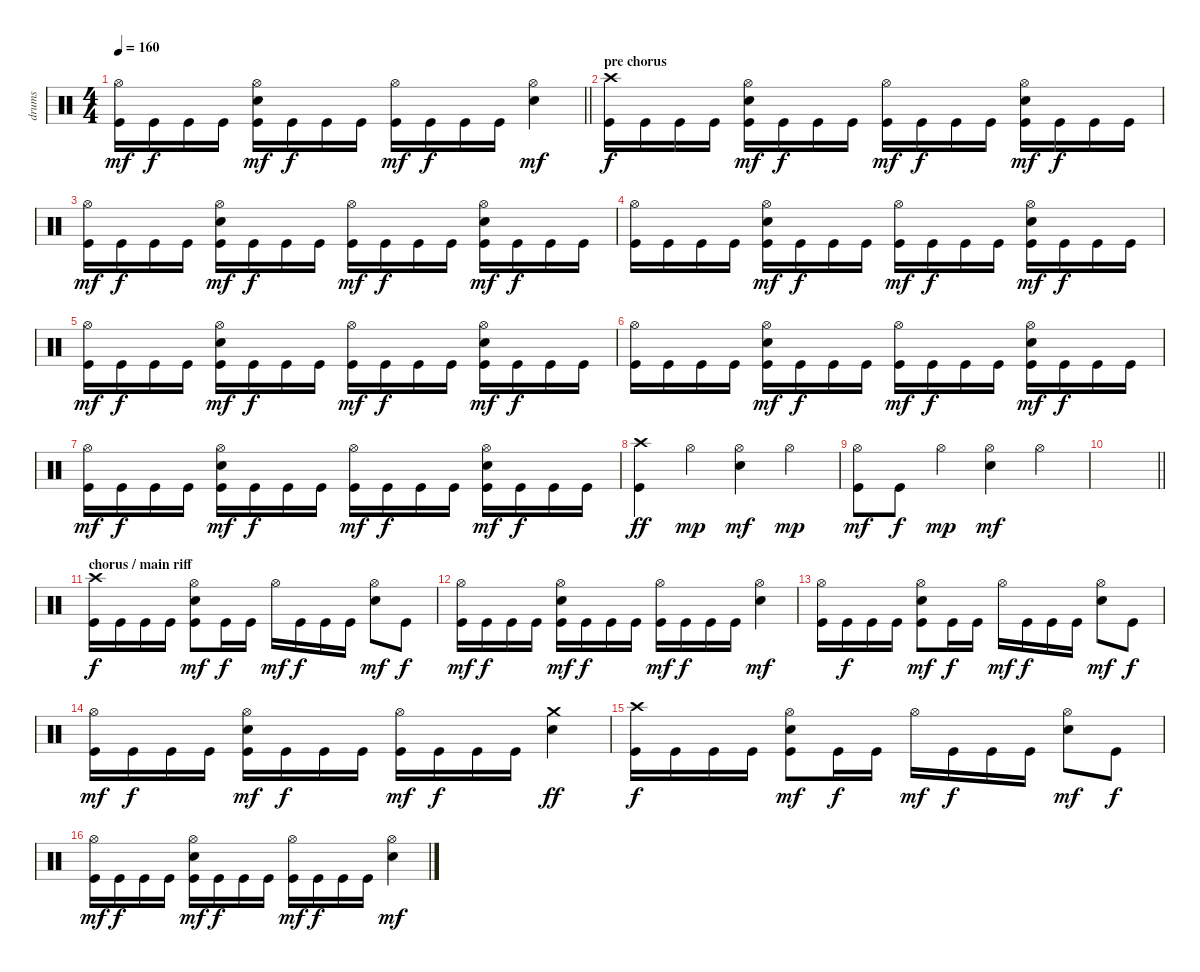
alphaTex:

\track ("drums" "drums") {instrument percussion}
\staff {score}
\articulation defaults
\ts (4 4)
\tempo 160
\clef neutral
\barLineRight lightlight
\ks c
("Hi-Hat (open)" "Kick (hit)").16{dy mf} "Kick (hit)".16{dy f} "Kick (hit)".16 "Kick (hit)".16 ("Hi-Hat (open)" "Electric Snare (hit)" "Kick (hit)").16{dy mf} "Kick (hit)".16{dy f} "Kick (hit)".16 "Kick (hit)".16 ("Hi-Hat (open)" "Kick (hit)").16{dy mf} "Kick (hit)".16{dy f} "Kick (hit)".16 "Kick (hit)".16 ("Hi-Hat (open)" "Electric Snare (hit)").4{dy mf} |
\section ("" "pre chorus")
("Crash high (hit)" "Kick (hit)").16{dy f} "Kick (hit)".16 "Kick (hit)".16 "Kick (hit)".16 ("Hi-Hat (open)" "Electric Snare (hit)" "Kick (hit)").16{dy mf} "Kick (hit)".16{dy f} "Kick (hit)".16 "Kick (hit)".16 ("Hi-Hat (open)" "Kick (hit)").16{dy mf} "Kick (hit)".16{dy f} "Kick (hit)".16 "Kick (hit)".16 ("Hi-Hat (open)" "Electric Snare (hit)" "Kick (hit)").16{dy mf} "Kick (hit)".16{dy f} "Kick (hit)".16 "Kick (hit)".16 |
("Hi-Hat (open)" "Kick (hit)").16{dy mf} "Kick (hit)".16{dy f} "Kick (hit)".16 "Kick (hit)".16 ("Hi-Hat (open)" "Electric Snare (hit)" "Kick (hit)").16{dy mf} "Kick (hit)".16{dy f} "Kick (hit)".16 "Kick (hit)".16 ("Hi-Hat (open)" "Kick (hit)").16{dy mf} "Kick (hit)".16{dy f} "Kick (hit)".16 "Kick (hit)".16 ("Hi-Hat (open)" "Electric Snare (hit)" "Kick (hit)").16{dy mf} "Kick (hit)".16{dy f} "Kick (hit)".16 "Kick (hit)".16 |
("Hi-Hat (open)" "Kick (hit)").16 "Kick (hit)".16 "Kick (hit)".16 "Kick (hit)".16 ("Hi-Hat (open)" "Electric Snare (hit)" "Kick (hit)").16{dy mf} "Kick (hit)".16{dy f} "Kick (hit)".16 "Kick (hit)".16 ("Hi-Hat (open)" "Kick (hit)").16{dy mf} "Kick (hit)".16{dy f} "Kick (hit)".16 "Kick (hit)".16 ("Hi-Hat (open)" "Electric Snare (hit)" "Kick (hit)").16{dy mf} "Kick (hit)".16{dy f} "Kick (hit)".16 "Kick (hit)".16 |
("Hi-Hat (open)" "Kick (hit)").16{dy mf} "Kick (hit)".16{dy f} "Kick (hit)".16 "Kick (hit)".16 ("Hi-Hat (open)" "Electric Snare (hit)" "Kick (hit)").16{dy mf} "Kick (hit)".16{dy f} "Kick (hit)".16 "Kick (hit)".16 ("Hi-Hat (open)" "Kick (hit)").16{dy mf} "Kick (hit)".16{dy f} "Kick (hit)".16 "Kick (hit)".16 ("Hi-Hat (open)" "Electric Snare (hit)" "Kick (hit)").16{dy mf} "Kick (hit)".16{dy f} "Kick (hit)".16 "Kick (hit)".16 |
("Hi-Hat (open)" "Kick (hit)").16 "Kick (hit)".16 "Kick (hit)".16 "Kick (hit)".16 ("Hi-Hat (open)" "Electric Snare (hit)" "Kick (hit)").16{dy mf} "Kick (hit)".16{dy f} "Kick (hit)".16 "Kick (hit)".16 ("Hi-Hat (open)" "Kick (hit)").16{dy mf} "Kick (hit)".16{dy f} "Kick (hit)".16 "Kick (hit)".16 ("Hi-Hat (open)" "Electric Snare (hit)" "Kick (hit)").16{dy mf} "Kick (hit)".16{dy f} "Kick (hit)".16 "Kick (hit)".16 |
("Hi-Hat (open)" "Kick (hit)").16{dy mf} "Kick (hit)".16{dy f} "Kick (hit)".16 "Kick (hit)".16 ("Hi-Hat (open)" "Electric Snare (hit)" "Kick (hit)").16{dy mf} "Kick (hit)".16{dy f} "Kick (hit)".16 "Kick (hit)".16 ("Hi-Hat (open)" "Kick (hit)").16{dy mf} "Kick (hit)".16{dy f} "Kick (hit)".16 "Kick (hit)".16 ("Hi-Hat (open)" "Electric Snare (hit)" "Kick (hit)").16{dy mf} "Kick (hit)".16{dy f} "Kick (hit)".16 "Kick (hit)".16 |
("Crash high (hit)" "Kick (hit)").4{dy ff} "Hi-Hat (open)".4{dy mp} ("Hi-Hat (open)" "Electric Snare (hit)").4{dy mf} "Hi-Hat (open)".4{dy mp} |
("Hi-Hat (open)" "Kick (hit)").8{dy mf} "Kick (hit)".8{dy f} "Hi-Hat (open)".4{dy mp} ("Hi-Hat (open)" "Electric Snare (hit)").4{dy mf} "Hi-Hat (open)".4 |
\barLineRight lightlight
|
\section ("" "chorus / main riff")
("Crash high (hit)" "Kick (hit)").16{dy f} "Kick (hit)".16 "Kick (hit)".16 "Kick (hit)".16 ("Hi-Hat (open)" "Electric Snare (hit)" "Kick (hit)").8{dy mf} "Kick (hit)".16{dy f} "Kick (hit)".16 "Hi-Hat (open)".16{dy mf} "Kick (hit)".16{dy f} "Kick (hit)".16 "Kick (hit)".16 ("Hi-Hat (open)" "Electric Snare (hit)").8{dy mf} "Kick (hit)".8{dy f} |
("Hi-Hat (open)" "Kick (hit)").16{dy mf} "Kick (hit)".16{dy f} "Kick (hit)".16 "Kick (hit)".16 ("Hi-Hat (open)" "Electric Snare (hit)" "Kick (hit)").16{dy mf} "Kick (hit)".16{dy f} "Kick (hit)".16 "Kick (hit)".16 ("Hi-Hat (open)" "Kick (hit)").16{dy mf} "Kick (hit)".16{dy f} "Kick (hit)".16 "Kick (hit)".16 ("Hi-Hat (open)" "Electric Snare (hit)").4{dy mf} |
("Hi-Hat (open)" "Kick (hit)").16 "Kick (hit)".16{dy f} "Kick (hit)".16 "Kick (hit)".16 ("Hi-Hat (open)" "Electric Snare (hit)" "Kick (hit)").8{dy mf} "Kick (hit)".16{dy f} "Kick (hit)".16 "Hi-Hat (open)".16{dy mf} "Kick (hit)".16{dy f} "Kick (hit)".16 "Kick (hit)".16 ("Hi-Hat (open)" "Electric Snare (hit)").8{dy mf} "Kick (hit)".8{dy f} |
("Hi-Hat (open)" "Kick (hit)").16{dy mf} "Kick (hit)".16{dy f} "Kick (hit)".16 "Kick (hit)".16 ("Hi-Hat (open)" "Electric Snare (hit)" "Kick (hit)").16{dy mf} "Kick (hit)".16{dy f} "Kick (hit)".16 "Kick (hit)".16 ("Hi-Hat (open)" "Kick (hit)").16{dy mf} "Kick (hit)".16{dy f} "Kick (hit)".16 "Kick (hit)".16 ("Crash medium (hit)" "Electric Snare (hit)").4{dy ff} |
("Crash high (hit)" "Kick (hit)").16{dy f} "Kick (hit)".16 "Kick (hit)".16 "Kick (hit)".16 ("Hi-Hat (open)" "Electric Snare (hit)" "Kick (hit)").8{dy mf} "Kick (hit)".16{dy f} "Kick (hit)".16 "Hi-Hat (open)".16{dy mf} "Kick (hit)".16{dy f} "Kick (hit)".16 "Kick (hit)".16 ("Hi-Hat (open)" "Electric Snare (hit)").8{dy mf} "Kick (hit)".8{dy f} |
("Hi-Hat (open)" "Kick (hit)").16{dy mf} "Kick (hit)".16{dy f} "Kick (hit)".16 "Kick (hit)".16 ("Hi-Hat (open)" "Electric Snare (hit)" "Kick (hit)").16{dy mf} "Kick (hit)".16{dy f} "Kick (hit)".16 "Kick (hit)".16 ("Hi-Hat (open)" "Kick (hit)").16{dy mf} "Kick (hit)".16{dy f} "Kick (hit)".16 "Kick (hit)".16 ("Hi-Hat (open)" "Electric Snare (hit)").4{dy mf}
